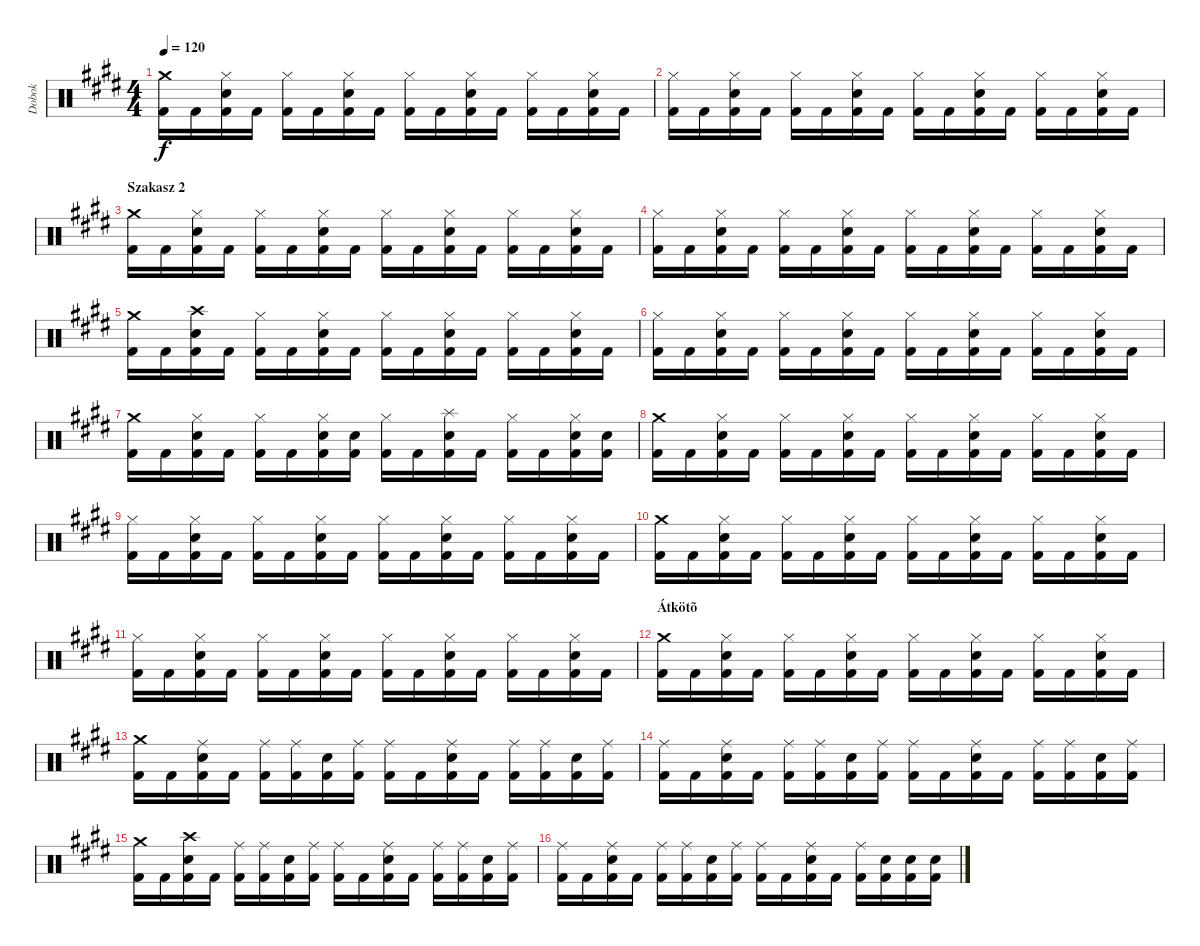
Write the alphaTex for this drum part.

\track ("Dobok" "Dobok") {instrument percussion}
\staff {score}
\articulation defaults
\ts (4 4)
\tempo 120
\clef neutral
\ks c#minor
("Crash medium (hit)" "Kick (hit) 2").16{dy f} "Kick (hit) 2".16 ("Hi-Hat (closed)" "Snare (hit) 2" "Kick (hit) 2").16 "Kick (hit) 2".16 ("Hi-Hat (closed)" "Kick (hit) 2").16 "Kick (hit) 2".16 ("Hi-Hat (closed)" "Snare (hit) 2" "Kick (hit) 2").16 "Kick (hit) 2".16 ("Hi-Hat (closed)" "Kick (hit) 2").16 "Kick (hit) 2".16 ("Hi-Hat (closed)" "Snare (hit) 2" "Kick (hit) 2").16 "Kick (hit) 2".16 ("Hi-Hat (closed)" "Kick (hit) 2").16 "Kick (hit) 2".16 ("Hi-Hat (closed)" "Snare (hit) 2" "Kick (hit) 2").16 "Kick (hit) 2".16 |
("Hi-Hat (closed)" "Kick (hit) 2").16 "Kick (hit) 2".16 ("Hi-Hat (closed)" "Snare (hit) 2" "Kick (hit) 2").16 "Kick (hit) 2".16 ("Hi-Hat (closed)" "Kick (hit) 2").16 "Kick (hit) 2".16 ("Hi-Hat (closed)" "Snare (hit) 2" "Kick (hit) 2").16 "Kick (hit) 2".16 ("Hi-Hat (closed)" "Kick (hit) 2").16 "Kick (hit) 2".16 ("Hi-Hat (closed)" "Snare (hit) 2" "Kick (hit) 2").16 "Kick (hit) 2".16 ("Hi-Hat (closed)" "Kick (hit) 2").16 "Kick (hit) 2".16 ("Hi-Hat (closed)" "Snare (hit) 2" "Kick (hit) 2").16 "Kick (hit) 2".16 |
\section ("" "Szakasz 2")
("Crash medium (hit)" "Kick (hit) 2").16 "Kick (hit) 2".16 ("Hi-Hat (closed)" "Snare (hit) 2" "Kick (hit) 2").16 "Kick (hit) 2".16 ("Hi-Hat (closed)" "Kick (hit) 2").16 "Kick (hit) 2".16 ("Hi-Hat (closed)" "Snare (hit) 2" "Kick (hit) 2").16 "Kick (hit) 2".16 ("Hi-Hat (closed)" "Kick (hit) 2").16 "Kick (hit) 2".16 ("Hi-Hat (closed)" "Snare (hit) 2" "Kick (hit) 2").16 "Kick (hit) 2".16 ("Hi-Hat (closed)" "Kick (hit) 2").16 "Kick (hit) 2".16 ("Hi-Hat (closed)" "Snare (hit) 2" "Kick (hit) 2").16 "Kick (hit) 2".16 |
("Hi-Hat (closed)" "Kick (hit) 2").16 "Kick (hit) 2".16 ("Hi-Hat (closed)" "Snare (hit) 2" "Kick (hit) 2").16 "Kick (hit) 2".16 ("Hi-Hat (closed)" "Kick (hit) 2").16 "Kick (hit) 2".16 ("Hi-Hat (closed)" "Snare (hit) 2" "Kick (hit) 2").16 "Kick (hit) 2".16 ("Hi-Hat (closed)" "Kick (hit) 2").16 "Kick (hit) 2".16 ("Hi-Hat (closed)" "Snare (hit) 2" "Kick (hit) 2").16 "Kick (hit) 2".16 ("Hi-Hat (closed)" "Kick (hit) 2").16 "Kick (hit) 2".16 ("Hi-Hat (closed)" "Snare (hit) 2" "Kick (hit) 2").16 "Kick (hit) 2".16 |
("Crash medium (hit)" "Kick (hit) 2").16 "Kick (hit) 2".16 ("Crash high (hit)" "Snare (hit) 2" "Kick (hit) 2").16 "Kick (hit) 2".16 ("Hi-Hat (closed)" "Kick (hit) 2").16 "Kick (hit) 2".16 ("Hi-Hat (closed)" "Snare (hit) 2" "Kick (hit) 2").16 "Kick (hit) 2".16 ("Hi-Hat (closed)" "Kick (hit) 2").16 "Kick (hit) 2".16 ("Hi-Hat (closed)" "Snare (hit) 2" "Kick (hit) 2").16 "Kick (hit) 2".16 ("Hi-Hat (closed)" "Kick (hit) 2").16 "Kick (hit) 2".16 ("Hi-Hat (closed)" "Snare (hit) 2" "Kick (hit) 2").16 "Kick (hit) 2".16 |
("Hi-Hat (closed)" "Kick (hit) 2").16 "Kick (hit) 2".16 ("Hi-Hat (closed)" "Snare (hit) 2" "Kick (hit) 2").16 "Kick (hit) 2".16 ("Hi-Hat (closed)" "Kick (hit) 2").16 "Kick (hit) 2".16 ("Hi-Hat (closed)" "Snare (hit) 2" "Kick (hit) 2").16 "Kick (hit) 2".16 ("Hi-Hat (closed)" "Kick (hit) 2").16 "Kick (hit) 2".16 ("Hi-Hat (closed)" "Snare (hit) 2" "Kick (hit) 2").16 "Kick (hit) 2".16 ("Hi-Hat (closed)" "Kick (hit) 2").16 "Kick (hit) 2".16 ("Hi-Hat (closed)" "Snare (hit) 2" "Kick (hit) 2").16 "Kick (hit) 2".16 |
("Crash medium (hit)" "Kick (hit) 2").16 "Kick (hit) 2".16 ("Hi-Hat (closed)" "Snare (hit) 2" "Kick (hit) 2").16 "Kick (hit) 2".16 ("Hi-Hat (closed)" "Kick (hit) 2").16 "Kick (hit) 2".16 ("Hi-Hat (closed)" "Snare (hit) 2" "Kick (hit) 2").16 ("Snare (hit) 2" "Kick (hit) 2").16 ("Hi-Hat (closed)" "Kick (hit) 2").16 "Kick (hit) 2".16 ("Splash (hit)" "Snare (hit) 2" "Kick (hit) 2").16 "Kick (hit) 2".16 ("Hi-Hat (closed)" "Kick (hit) 2").16 "Kick (hit) 2".16 ("Hi-Hat (closed)" "Snare (hit) 2" "Kick (hit) 2").16 ("Snare (hit) 2" "Kick (hit) 2").16 |
("Crash medium (hit)" "Kick (hit) 2").16 "Kick (hit) 2".16 ("Hi-Hat (closed)" "Snare (hit) 2" "Kick (hit) 2").16 "Kick (hit) 2".16 ("Hi-Hat (closed)" "Kick (hit) 2").16 "Kick (hit) 2".16 ("Hi-Hat (closed)" "Snare (hit) 2" "Kick (hit) 2").16 "Kick (hit) 2".16 ("Hi-Hat (closed)" "Kick (hit) 2").16 "Kick (hit) 2".16 ("Hi-Hat (closed)" "Snare (hit) 2" "Kick (hit) 2").16 "Kick (hit) 2".16 ("Hi-Hat (closed)" "Kick (hit) 2").16 "Kick (hit) 2".16 ("Hi-Hat (closed)" "Snare (hit) 2" "Kick (hit) 2").16 "Kick (hit) 2".16 |
("Hi-Hat (closed)" "Kick (hit) 2").16 "Kick (hit) 2".16 ("Hi-Hat (closed)" "Snare (hit) 2" "Kick (hit) 2").16 "Kick (hit) 2".16 ("Hi-Hat (closed)" "Kick (hit) 2").16 "Kick (hit) 2".16 ("Hi-Hat (closed)" "Snare (hit) 2" "Kick (hit) 2").16 "Kick (hit) 2".16 ("Hi-Hat (closed)" "Kick (hit) 2").16 "Kick (hit) 2".16 ("Hi-Hat (closed)" "Snare (hit) 2" "Kick (hit) 2").16 "Kick (hit) 2".16 ("Hi-Hat (closed)" "Kick (hit) 2").16 "Kick (hit) 2".16 ("Hi-Hat (closed)" "Snare (hit) 2" "Kick (hit) 2").16 "Kick (hit) 2".16 |
("Crash medium (hit)" "Kick (hit) 2").16 "Kick (hit) 2".16 ("Hi-Hat (closed)" "Snare (hit) 2" "Kick (hit) 2").16 "Kick (hit) 2".16 ("Hi-Hat (closed)" "Kick (hit) 2").16 "Kick (hit) 2".16 ("Hi-Hat (closed)" "Snare (hit) 2" "Kick (hit) 2").16 "Kick (hit) 2".16 ("Hi-Hat (closed)" "Kick (hit) 2").16 "Kick (hit) 2".16 ("Hi-Hat (closed)" "Snare (hit) 2" "Kick (hit) 2").16 "Kick (hit) 2".16 ("Hi-Hat (closed)" "Kick (hit) 2").16 "Kick (hit) 2".16 ("Hi-Hat (closed)" "Snare (hit) 2" "Kick (hit) 2").16 "Kick (hit) 2".16 |
("Hi-Hat (closed)" "Kick (hit) 2").16 "Kick (hit) 2".16 ("Hi-Hat (closed)" "Snare (hit) 2" "Kick (hit) 2").16 "Kick (hit) 2".16 ("Hi-Hat (closed)" "Kick (hit) 2").16 "Kick (hit) 2".16 ("Hi-Hat (closed)" "Snare (hit) 2" "Kick (hit) 2").16 "Kick (hit) 2".16 ("Hi-Hat (closed)" "Kick (hit) 2").16 "Kick (hit) 2".16 ("Hi-Hat (closed)" "Snare (hit) 2" "Kick (hit) 2").16 "Kick (hit) 2".16 ("Hi-Hat (closed)" "Kick (hit) 2").16 "Kick (hit) 2".16 ("Hi-Hat (closed)" "Snare (hit) 2" "Kick (hit) 2").16 "Kick (hit) 2".16 |
\section ("" "Átkötõ")
("Crash medium (hit)" "Kick (hit) 2").16 "Kick (hit) 2".16 ("Hi-Hat (closed)" "Snare (hit) 2" "Kick (hit) 2").16 "Kick (hit) 2".16 ("Hi-Hat (closed)" "Kick (hit) 2").16 "Kick (hit) 2".16 ("Hi-Hat (closed)" "Snare (hit) 2" "Kick (hit) 2").16 "Kick (hit) 2".16 ("Hi-Hat (closed)" "Kick (hit) 2").16 "Kick (hit) 2".16 ("Hi-Hat (closed)" "Snare (hit) 2" "Kick (hit) 2").16 "Kick (hit) 2".16 ("Hi-Hat (closed)" "Kick (hit) 2").16 "Kick (hit) 2".16 ("Hi-Hat (closed)" "Snare (hit) 2" "Kick (hit) 2").16 "Kick (hit) 2".16 |
("Crash medium (hit)" "Kick (hit) 2").16 "Kick (hit) 2".16 ("Ride (middle)" "Snare (hit) 2" "Kick (hit) 2").16 "Kick (hit) 2".16 ("Ride (middle)" "Kick (hit) 2").16 ("Ride (middle)" "Kick (hit) 2").16 ("Snare (hit) 2" "Kick (hit) 2").16 ("Ride (middle)" "Kick (hit) 2").16 ("Ride (middle)" "Kick (hit) 2").16 "Kick (hit) 2".16 ("Ride (middle)" "Snare (hit) 2" "Kick (hit) 2").16 "Kick (hit) 2".16 ("Ride (middle)" "Kick (hit) 2").16 ("Ride (middle)" "Kick (hit) 2").16 ("Snare (hit) 2" "Kick (hit) 2").16 ("Ride (middle)" "Kick (hit) 2").16 |
("Ride (middle)" "Kick (hit) 2").16 "Kick (hit) 2".16 ("Ride (middle)" "Snare (hit) 2" "Kick (hit) 2").16 "Kick (hit) 2".16 ("Ride (middle)" "Kick (hit) 2").16 ("Ride (middle)" "Kick (hit) 2").16 ("Snare (hit) 2" "Kick (hit) 2").16 ("Ride (middle)" "Kick (hit) 2").16 ("Ride (middle)" "Kick (hit) 2").16 "Kick (hit) 2".16 ("Ride (middle)" "Snare (hit) 2" "Kick (hit) 2").16 "Kick (hit) 2".16 ("Ride (middle)" "Kick (hit) 2").16 ("Ride (middle)" "Kick (hit) 2").16 ("Snare (hit) 2" "Kick (hit) 2").16 ("Ride (middle)" "Kick (hit) 2").16 |
("Crash medium (hit)" "Kick (hit) 2").16 "Kick (hit) 2".16 ("Crash high (hit)" "Snare (hit) 2" "Kick (hit) 2").16 "Kick (hit) 2".16 ("Ride (middle)" "Kick (hit) 2").16 ("Ride (middle)" "Kick (hit) 2").16 ("Snare (hit) 2" "Kick (hit) 2").16 ("Ride (middle)" "Kick (hit) 2").16 ("Ride (middle)" "Kick (hit) 2").16 "Kick (hit) 2".16 ("Ride (middle)" "Snare (hit) 2" "Kick (hit) 2").16 "Kick (hit) 2".16 ("Ride (middle)" "Kick (hit) 2").16 ("Ride (middle)" "Kick (hit) 2").16 ("Snare (hit) 2" "Kick (hit) 2").16 ("Ride (middle)" "Kick (hit) 2").16 |
("Ride (middle)" "Kick (hit) 2").16 "Kick (hit) 2".16 ("Ride (middle)" "Snare (hit) 2" "Kick (hit) 2").16 "Kick (hit) 2".16 ("Ride (middle)" "Kick (hit) 2").16 ("Ride (middle)" "Kick (hit) 2").16 ("Snare (hit) 2" "Kick (hit) 2").16 ("Ride (middle)" "Kick (hit) 2").16 ("Ride (middle)" "Kick (hit) 2").16 "Kick (hit) 2".16 ("Ride (middle)" "Snare (hit) 2" "Kick (hit) 2").16 "Kick (hit) 2".16 ("Ride (middle)" "Kick (hit) 2").16 ("Snare (hit) 2" "Kick (hit) 2").16 ("Snare (hit) 2" "Kick (hit) 2").16 ("Snare (hit) 2" "Kick (hit) 2").16
